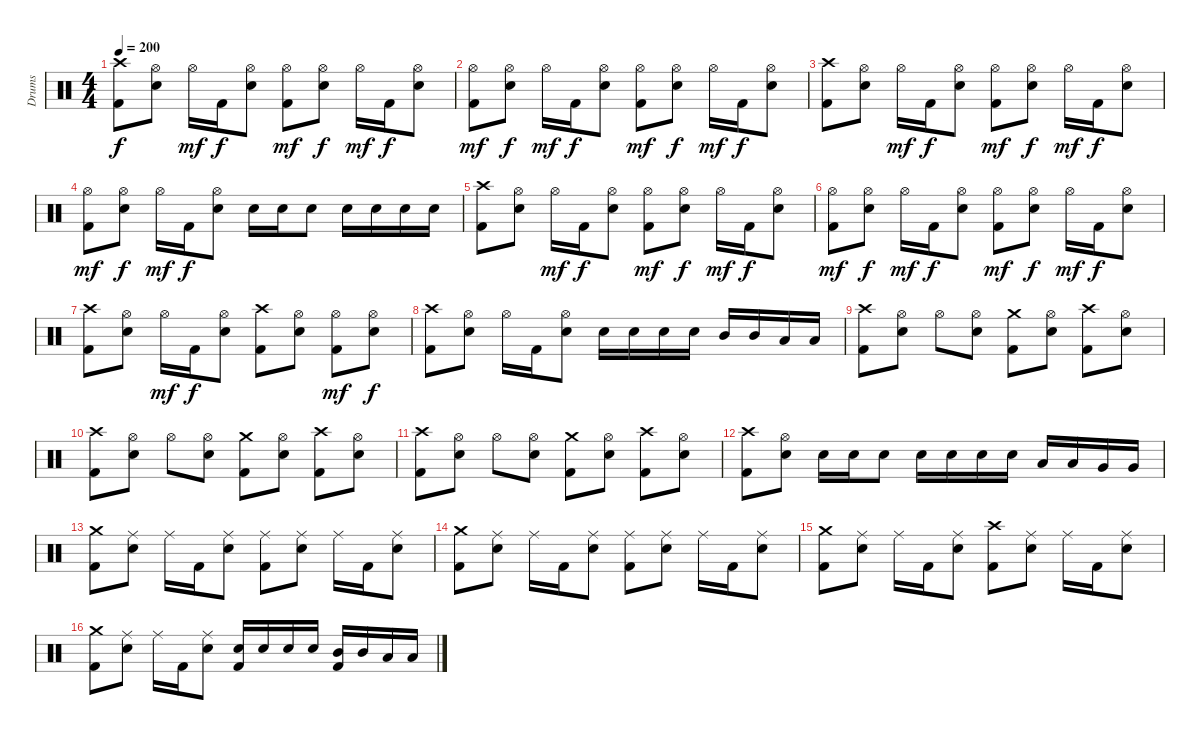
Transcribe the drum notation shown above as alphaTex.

\track ("Drums" "Drums") {instrument percussion}
\staff {score}
\articulation defaults
\ts (4 4)
\tempo 200
\clef neutral
\ks c
("Crash high (hit)" "Kick (hit) 2").8{dy f} ("Hi-Hat (open)" "Electric Snare (hit)").8 "Hi-Hat (open)".16{dy mf} "Kick (hit) 2".16{dy f} ("Hi-Hat (open)" "Electric Snare (hit)").8 ("Hi-Hat (open)" "Kick (hit) 2").8{dy mf} ("Hi-Hat (open)" "Electric Snare (hit)").8{dy f} "Hi-Hat (open)".16{dy mf} "Kick (hit) 2".16{dy f} ("Hi-Hat (open)" "Electric Snare (hit)").8 |
("Hi-Hat (open)" "Kick (hit) 2").8{dy mf} ("Hi-Hat (open)" "Electric Snare (hit)").8{dy f} "Hi-Hat (open)".16{dy mf} "Kick (hit) 2".16{dy f} ("Hi-Hat (open)" "Electric Snare (hit)").8 ("Hi-Hat (open)" "Kick (hit) 2").8{dy mf} ("Hi-Hat (open)" "Electric Snare (hit)").8{dy f} "Hi-Hat (open)".16{dy mf} "Kick (hit) 2".16{dy f} ("Hi-Hat (open)" "Electric Snare (hit)").8 |
("Crash high (hit)" "Kick (hit) 2").8 ("Hi-Hat (open)" "Electric Snare (hit)").8 "Hi-Hat (open)".16{dy mf} "Kick (hit) 2".16{dy f} ("Hi-Hat (open)" "Electric Snare (hit)").8 ("Hi-Hat (open)" "Kick (hit) 2").8{dy mf} ("Hi-Hat (open)" "Electric Snare (hit)").8{dy f} "Hi-Hat (open)".16{dy mf} "Kick (hit) 2".16{dy f} ("Hi-Hat (open)" "Electric Snare (hit)").8 |
("Hi-Hat (open)" "Kick (hit) 2").8{dy mf} ("Hi-Hat (open)" "Electric Snare (hit)").8{dy f} "Hi-Hat (open)".16{dy mf} "Kick (hit) 2".16{dy f} ("Hi-Hat (open)" "Electric Snare (hit)").8 "Electric Snare (hit)".16 "Electric Snare (hit)".16 "Electric Snare (hit)".8 "Electric Snare (hit)".16 "Electric Snare (hit)".16 "Electric Snare (hit)".16 "Electric Snare (hit)".16 |
("Crash high (hit)" "Kick (hit) 2").8 ("Hi-Hat (open)" "Electric Snare (hit)").8 "Hi-Hat (open)".16{dy mf} "Kick (hit) 2".16{dy f} ("Hi-Hat (open)" "Electric Snare (hit)").8 ("Hi-Hat (open)" "Kick (hit) 2").8{dy mf} ("Hi-Hat (open)" "Electric Snare (hit)").8{dy f} "Hi-Hat (open)".16{dy mf} "Kick (hit) 2".16{dy f} ("Hi-Hat (open)" "Electric Snare (hit)").8 |
("Hi-Hat (open)" "Kick (hit) 2").8{dy mf} ("Hi-Hat (open)" "Electric Snare (hit)").8{dy f} "Hi-Hat (open)".16{dy mf} "Kick (hit) 2".16{dy f} ("Hi-Hat (open)" "Electric Snare (hit)").8 ("Hi-Hat (open)" "Kick (hit) 2").8{dy mf} ("Hi-Hat (open)" "Electric Snare (hit)").8{dy f} "Hi-Hat (open)".16{dy mf} "Kick (hit) 2".16{dy f} ("Hi-Hat (open)" "Electric Snare (hit)").8 |
("Crash high (hit)" "Kick (hit) 2").8 ("Hi-Hat (open)" "Electric Snare (hit)").8 "Hi-Hat (open)".16{dy mf} "Kick (hit) 2".16{dy f} ("Hi-Hat (open)" "Electric Snare (hit)").8 ("Crash high (hit)" "Kick (hit) 2").8 ("Hi-Hat (open)" "Electric Snare (hit)").8 ("Hi-Hat (open)" "Kick (hit) 2").8{dy mf} ("Hi-Hat (open)" "Electric Snare (hit)").8{dy f} |
("Crash high (hit)" "Kick (hit) 2").8 ("Hi-Hat (open)" "Electric Snare (hit)").8 "Hi-Hat (open)".16 "Kick (hit) 2".16 ("Hi-Hat (open)" "Electric Snare (hit)").8 "Electric Snare (hit)".16 "Electric Snare (hit)".16 "Electric Snare (hit)".16 "Electric Snare (hit)".16 "Mid Tom (hit)".16 "Mid Tom (hit)".16 "Low Tom (hit)".16 "Low Tom (hit)".16 |
("Crash high (hit)" "Kick (hit) 2").8 ("Hi-Hat (open)" "Electric Snare (hit)").8 "Hi-Hat (open)".8 ("Hi-Hat (open)" "Electric Snare (hit)").8 ("Crash medium (hit)" "Kick (hit) 2").8 ("Hi-Hat (open)" "Electric Snare (hit)").8 ("Crash high (hit)" "Kick (hit) 2").8 ("Hi-Hat (open)" "Electric Snare (hit)").8 |
("Crash high (hit)" "Kick (hit) 2").8 ("Hi-Hat (open)" "Electric Snare (hit)").8 "Hi-Hat (open)".8 ("Hi-Hat (open)" "Electric Snare (hit)").8 ("Crash medium (hit)" "Kick (hit) 2").8 ("Hi-Hat (open)" "Electric Snare (hit)").8 ("Crash high (hit)" "Kick (hit) 2").8 ("Hi-Hat (open)" "Electric Snare (hit)").8 |
("Crash high (hit)" "Kick (hit) 2").8 ("Hi-Hat (open)" "Electric Snare (hit)").8 "Hi-Hat (open)".8 ("Hi-Hat (open)" "Electric Snare (hit)").8 ("Crash medium (hit)" "Kick (hit) 2").8 ("Hi-Hat (open)" "Electric Snare (hit)").8 ("Crash high (hit)" "Kick (hit) 2").8 ("Hi-Hat (open)" "Electric Snare (hit)").8 |
("Crash high (hit)" "Kick (hit) 2").8 ("Hi-Hat (open)" "Electric Snare (hit)").8 "Electric Snare (hit)".16 "Electric Snare (hit)".16 "Electric Snare (hit)".8 "Electric Snare (hit)".16 "Electric Snare (hit)".16 "Electric Snare (hit)".16 "Electric Snare (hit)".16 "Low Tom (hit)".16 "Low Tom (hit)".16 "Very Low Tom (hit)".16 "Very Low Tom (hit)".16 |
("Crash medium (hit)" "Kick (hit) 2").8 ("Ride (middle)" "Electric Snare (hit)").8 "Ride (middle)".16 "Kick (hit) 2".16 ("Ride (middle)" "Electric Snare (hit)").8 ("Ride (middle)" "Kick (hit) 2").8 ("Ride (middle)" "Electric Snare (hit)").8 "Ride (middle)".16 "Kick (hit) 2".16 ("Ride (middle)" "Electric Snare (hit)").8 |
("Crash medium (hit)" "Kick (hit) 2").8 ("Ride (middle)" "Electric Snare (hit)").8 "Ride (middle)".16 "Kick (hit) 2".16 ("Ride (middle)" "Electric Snare (hit)").8 ("Ride (middle)" "Kick (hit) 2").8 ("Ride (middle)" "Electric Snare (hit)").8 "Ride (middle)".16 "Kick (hit) 2".16 ("Ride (middle)" "Electric Snare (hit)").8 |
("Crash medium (hit)" "Kick (hit) 2").8 ("Ride (middle)" "Electric Snare (hit)").8 "Ride (middle)".16 "Kick (hit) 2".16 ("Ride (middle)" "Electric Snare (hit)").8 ("Crash high (hit)" "Kick (hit) 2").8 ("Ride (middle)" "Electric Snare (hit)").8 "Ride (middle)".16 "Kick (hit) 2".16 ("Ride (middle)" "Electric Snare (hit)").8 |
("Crash medium (hit)" "Kick (hit) 2").8 ("Ride (middle)" "Electric Snare (hit)").8 "Ride (middle)".16 "Kick (hit) 2".16 ("Ride (middle)" "Electric Snare (hit)").8 ("Electric Snare (hit)" "Kick (hit) 2").16 "Electric Snare (hit)".16 "Electric Snare (hit)".16 "Electric Snare (hit)".16 ("Mid Tom (hit)" "Kick (hit) 2").16 "Mid Tom (hit)".16 "Low Tom (hit)".16 "Low Tom (hit)".16
